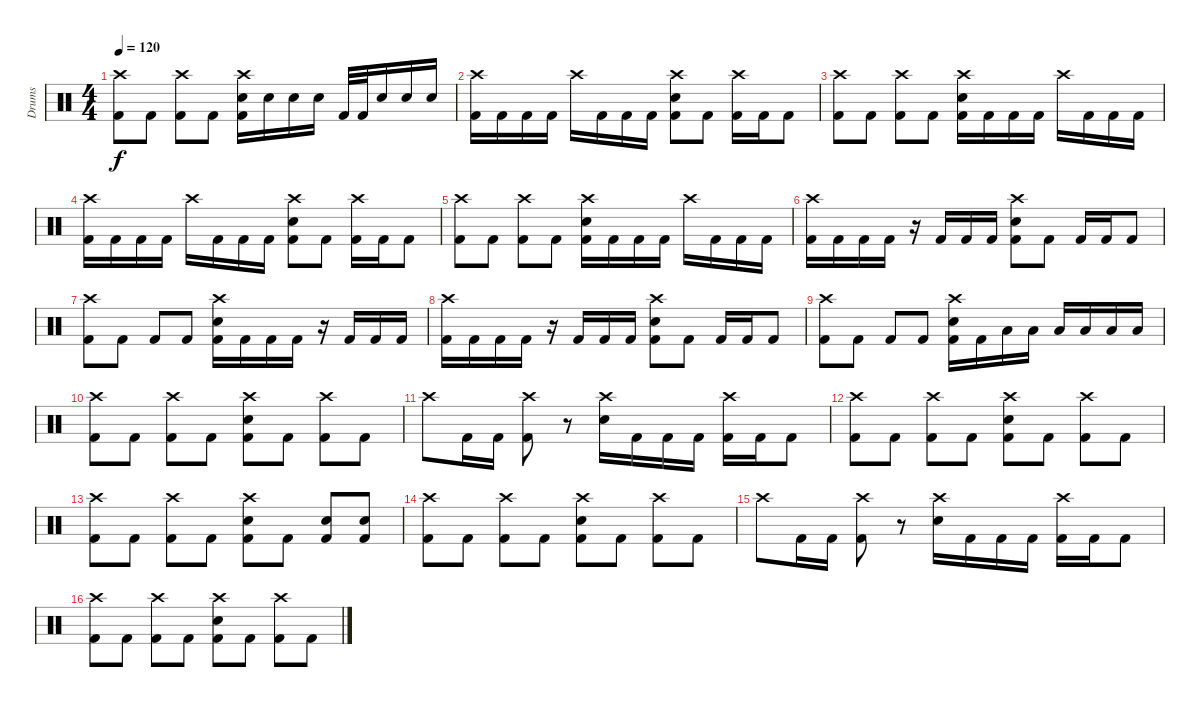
\track ("Drums" "Drums") {instrument percussion}
\staff {score}
\articulation defaults
\ts (4 4)
\tempo 120
\clef neutral
\ks c
("Crash high (hit)" "Kick (hit) 2").8{dy f} "Kick (hit) 2".8 ("Crash high (hit)" "Kick (hit) 2").8 "Kick (hit) 2".8 ("Crash high (hit)" "Electric Snare (hit)" "Kick (hit) 2").16 "Electric Snare (hit)".16 "Electric Snare (hit)".16 "Electric Snare (hit)".16 "Kick (hit) 2".32 "Kick (hit) 2".32 "Electric Snare (hit)".16 "Electric Snare (hit)".16 "Electric Snare (hit)".16 |
("Crash high (hit)" "Kick (hit) 2").16 "Kick (hit) 2".16 "Kick (hit) 2".16 "Kick (hit) 2".16 "Crash high (hit)".16 "Kick (hit) 2".16 "Kick (hit) 2".16 "Kick (hit) 2".16 ("Crash high (hit)" "Electric Snare (hit)" "Kick (hit) 2").8 "Kick (hit) 2".8 ("Crash high (hit)" "Kick (hit) 2").16 "Kick (hit) 2".16 "Kick (hit) 2".8 |
("Crash high (hit)" "Kick (hit) 2").8 "Kick (hit) 2".8 ("Crash high (hit)" "Kick (hit) 2").8 "Kick (hit) 2".8 ("Crash high (hit)" "Electric Snare (hit)" "Kick (hit) 2").16 "Kick (hit) 2".16 "Kick (hit) 2".16 "Kick (hit) 2".16 "Crash high (hit)".16 "Kick (hit) 2".16 "Kick (hit) 2".16 "Kick (hit) 2".16 |
("Crash high (hit)" "Kick (hit) 2").16 "Kick (hit) 2".16 "Kick (hit) 2".16 "Kick (hit) 2".16 "Crash high (hit)".16 "Kick (hit) 2".16 "Kick (hit) 2".16 "Kick (hit) 2".16 ("Crash high (hit)" "Electric Snare (hit)" "Kick (hit) 2").8 "Kick (hit) 2".8 ("Crash high (hit)" "Kick (hit) 2").16 "Kick (hit) 2".16 "Kick (hit) 2".8 |
("Crash high (hit)" "Kick (hit) 2").8 "Kick (hit) 2".8 ("Crash high (hit)" "Kick (hit) 2").8 "Kick (hit) 2".8 ("Crash high (hit)" "Electric Snare (hit)" "Kick (hit) 2").16 "Kick (hit) 2".16 "Kick (hit) 2".16 "Kick (hit) 2".16 "Crash high (hit)".16 "Kick (hit) 2".16 "Kick (hit) 2".16 "Kick (hit) 2".16 |
("Crash high (hit)" "Kick (hit) 2").16 "Kick (hit) 2".16 "Kick (hit) 2".16 "Kick (hit) 2".16 r.16 "Kick (hit) 2".16 "Kick (hit) 2".16 "Kick (hit) 2".16 ("Crash high (hit)" "Electric Snare (hit)" "Kick (hit) 2").8 "Kick (hit) 2".8 "Kick (hit) 2".16 "Kick (hit) 2".16 "Kick (hit) 2".8 |
("Crash high (hit)" "Kick (hit) 2").8 "Kick (hit) 2".8 "Kick (hit) 2".8 "Kick (hit) 2".8 ("Crash high (hit)" "Electric Snare (hit)" "Kick (hit) 2").16 "Kick (hit) 2".16 "Kick (hit) 2".16 "Kick (hit) 2".16 r.16 "Kick (hit) 2".16 "Kick (hit) 2".16 "Kick (hit) 2".16 |
("Crash high (hit)" "Kick (hit) 2").16 "Kick (hit) 2".16 "Kick (hit) 2".16 "Kick (hit) 2".16 r.16 "Kick (hit) 2".16 "Kick (hit) 2".16 "Kick (hit) 2".16 ("Crash high (hit)" "Electric Snare (hit)" "Kick (hit) 2").8 "Kick (hit) 2".8 "Kick (hit) 2".16 "Kick (hit) 2".16 "Kick (hit) 2".8 |
("Crash high (hit)" "Kick (hit) 2").8 "Kick (hit) 2".8 "Kick (hit) 2".8 "Kick (hit) 2".8 ("Crash high (hit)" "Electric Snare (hit)" "Kick (hit) 2").16 "Kick (hit) 2".16 "Low Tom (hit)".16 "Low Tom (hit)".16 "Low Tom (hit)".16 "Low Tom (hit)".16 "Low Tom (hit)".16 "Low Tom (hit)".16 |
("Crash high (hit)" "Kick (hit) 2").8 "Kick (hit) 2".8 ("Crash high (hit)" "Kick (hit) 2").8 "Kick (hit) 2".8 ("Crash high (hit)" "Electric Snare (hit)" "Kick (hit) 2").8 "Kick (hit) 2".8 ("Crash high (hit)" "Kick (hit) 2").8 "Kick (hit) 2".8 |
"Crash high (hit)".8 "Kick (hit) 2".16 "Kick (hit) 2".16 ("Crash high (hit)" "Kick (hit) 2").8 r.8 ("Crash high (hit)" "Electric Snare (hit)").16 "Kick (hit) 2".16 "Kick (hit) 2".16 "Kick (hit) 2".16 ("Crash high (hit)" "Kick (hit) 2").16 "Kick (hit) 2".16 "Kick (hit) 2".8 |
("Crash high (hit)" "Kick (hit) 2").8 "Kick (hit) 2".8 ("Crash high (hit)" "Kick (hit) 2").8 "Kick (hit) 2".8 ("Crash high (hit)" "Electric Snare (hit)" "Kick (hit) 2").8 "Kick (hit) 2".8 ("Crash high (hit)" "Kick (hit) 2").8 "Kick (hit) 2".8 |
("Crash high (hit)" "Kick (hit) 2").8 "Kick (hit) 2".8 ("Crash high (hit)" "Kick (hit) 2").8 "Kick (hit) 2".8 ("Crash high (hit)" "Electric Snare (hit)" "Kick (hit) 2").8 "Kick (hit) 2".8 ("Electric Snare (hit)" "Kick (hit) 2").8 ("Electric Snare (hit)" "Kick (hit) 2").8 |
("Crash high (hit)" "Kick (hit) 2").8 "Kick (hit) 2".8 ("Crash high (hit)" "Kick (hit) 2").8 "Kick (hit) 2".8 ("Crash high (hit)" "Electric Snare (hit)" "Kick (hit) 2").8 "Kick (hit) 2".8 ("Crash high (hit)" "Kick (hit) 2").8 "Kick (hit) 2".8 |
"Crash high (hit)".8 "Kick (hit) 2".16 "Kick (hit) 2".16 ("Crash high (hit)" "Kick (hit) 2").8 r.8 ("Crash high (hit)" "Electric Snare (hit)").16 "Kick (hit) 2".16 "Kick (hit) 2".16 "Kick (hit) 2".16 ("Crash high (hit)" "Kick (hit) 2").16 "Kick (hit) 2".16 "Kick (hit) 2".8 |
("Crash high (hit)" "Kick (hit) 2").8 "Kick (hit) 2".8 ("Crash high (hit)" "Kick (hit) 2").8 "Kick (hit) 2".8 ("Crash high (hit)" "Electric Snare (hit)" "Kick (hit) 2").8 "Kick (hit) 2".8 ("Crash high (hit)" "Kick (hit) 2").8 "Kick (hit) 2".8
